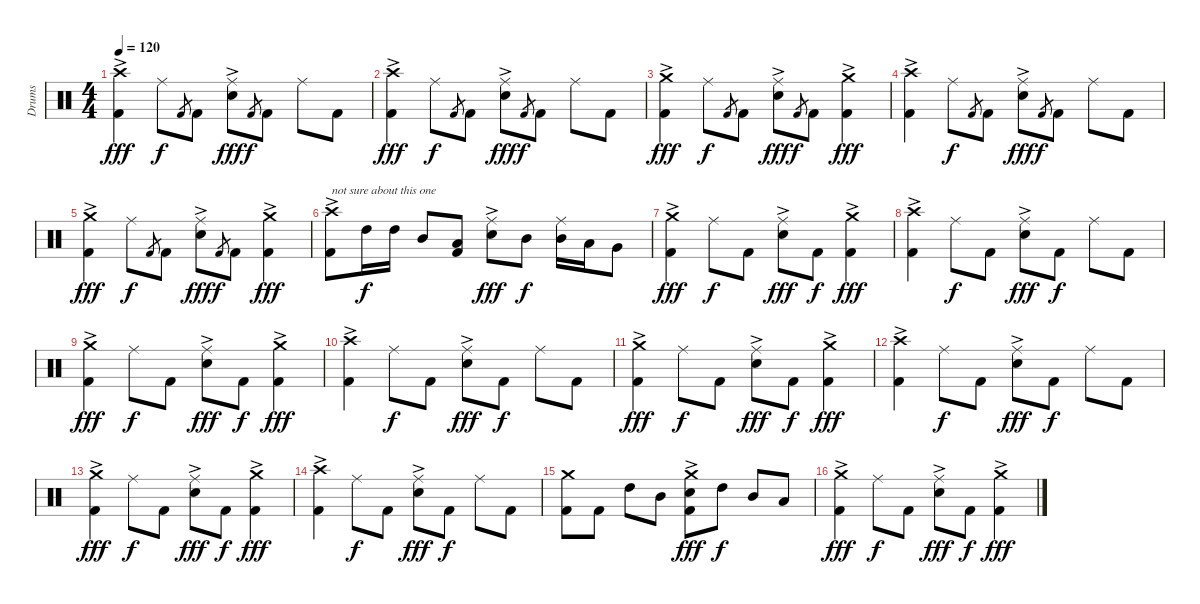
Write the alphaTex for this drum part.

\track ("Drums" "Drums") {instrument percussion}
\staff {score}
\articulation defaults
\ts (4 4)
\tempo 120
\clef neutral
\ks c
("Crash high (hit)"{ac} "Kick (hit) 2").4{dy fff} "Ride (middle)".8{dy f} "Kick (hit) 2".8{gr} "Kick (hit) 2".8 ("Ride (middle)" "Electric Snare (hit)"{ac}).8{dy fff} "Kick (hit) 2".8{gr dy f} "Kick (hit) 2".8 "Ride (middle)".8 "Kick (hit) 2".8 |
("Crash high (hit)"{ac} "Kick (hit) 2").4{dy fff} "Ride (middle)".8{dy f} "Kick (hit) 2".8{gr} "Kick (hit) 2".8 ("Ride (middle)" "Electric Snare (hit)"{ac}).8{dy fff} "Kick (hit) 2".8{gr dy f} "Kick (hit) 2".8 "Ride (middle)".8 "Kick (hit) 2".8 |
("Crash medium (hit)"{ac} "Kick (hit) 2").4{dy fff} "Ride (middle)".8{dy f} "Kick (hit) 2".8{gr} "Kick (hit) 2".8 ("Ride (middle)" "Electric Snare (hit)"{ac}).8{dy fff} "Kick (hit) 2".8{gr dy f} "Kick (hit) 2".8 ("Crash medium (hit)"{ac} "Kick (hit) 2").4{dy fff} |
("Crash high (hit)"{ac} "Kick (hit) 2").4 "Ride (middle)".8{dy f} "Kick (hit) 2".8{gr} "Kick (hit) 2".8 ("Ride (middle)" "Electric Snare (hit)"{ac}).8{dy fff} "Kick (hit) 2".8{gr dy f} "Kick (hit) 2".8 "Ride (middle)".8 "Kick (hit) 2".8 |
("Crash medium (hit)"{ac} "Kick (hit) 2").4{dy fff} "Ride (middle)".8{dy f} "Kick (hit) 2".8{gr} "Kick (hit) 2".8 ("Ride (middle)" "Electric Snare (hit)"{ac}).8{dy fff} "Kick (hit) 2".8{gr dy f} "Kick (hit) 2".8 ("Crash medium (hit)"{ac} "Kick (hit) 2").4{dy fff} |
("Crash high (hit)"{ac} "Kick (hit) 2").8{txt "not sure about this one"} "High Tom (hit)".16{dy f} "High Tom (hit)".16 "Mid Tom (hit)".8 ("Low Tom (hit)" "Kick (hit) 2").8 ("Ride (middle)" "Electric Snare (hit)"{ac}).8{dy fff} "Mid Tom (hit)".8{dy f} ("Ride (middle)" "Mid Tom (hit)").16 "Low Tom (hit)".16 "Very Low Tom (hit)".8 |
("Crash medium (hit)"{ac} "Kick (hit) 2").4{dy fff} "Ride (middle)".8{dy f} "Kick (hit) 2".8 ("Ride (middle)" "Electric Snare (hit)"{ac}).8{dy fff} "Kick (hit) 2".8{dy f} ("Crash medium (hit)"{ac} "Kick (hit) 2").4{dy fff} |
("Crash high (hit)"{ac} "Kick (hit) 2").4 "Ride (middle)".8{dy f} "Kick (hit) 2".8 ("Ride (middle)" "Electric Snare (hit)"{ac}).8{dy fff} "Kick (hit) 2".8{dy f} "Ride (middle)".8 "Kick (hit) 2".8 |
("Crash medium (hit)"{ac} "Kick (hit) 2").4{dy fff} "Ride (middle)".8{dy f} "Kick (hit) 2".8 ("Ride (middle)" "Electric Snare (hit)"{ac}).8{dy fff} "Kick (hit) 2".8{dy f} ("Crash medium (hit)"{ac} "Kick (hit) 2").4{dy fff} |
("Crash high (hit)"{ac} "Kick (hit) 2").4 "Ride (middle)".8{dy f} "Kick (hit) 2".8 ("Ride (middle)" "Electric Snare (hit)"{ac}).8{dy fff} "Kick (hit) 2".8{dy f} "Ride (middle)".8 "Kick (hit) 2".8 |
("Crash medium (hit)"{ac} "Kick (hit) 2").4{dy fff} "Ride (middle)".8{dy f} "Kick (hit) 2".8 ("Ride (middle)" "Electric Snare (hit)"{ac}).8{dy fff} "Kick (hit) 2".8{dy f} ("Crash medium (hit)"{ac} "Kick (hit) 2").4{dy fff} |
("Crash high (hit)"{ac} "Kick (hit) 2").4 "Ride (middle)".8{dy f} "Kick (hit) 2".8 ("Ride (middle)" "Electric Snare (hit)"{ac}).8{dy fff} "Kick (hit) 2".8{dy f} "Ride (middle)".8 "Kick (hit) 2".8 |
("Crash medium (hit)"{ac} "Kick (hit) 2").4{dy fff} "Ride (middle)".8{dy f} "Kick (hit) 2".8 ("Ride (middle)" "Electric Snare (hit)"{ac}).8{dy fff} "Kick (hit) 2".8{dy f} ("Crash medium (hit)"{ac} "Kick (hit) 2").4{dy fff} |
("Crash high (hit)"{ac} "Kick (hit) 2").4 "Ride (middle)".8{dy f} "Kick (hit) 2".8 ("Ride (middle)" "Electric Snare (hit)"{ac}).8{dy fff} "Kick (hit) 2".8{dy f} "Ride (middle)".8 "Kick (hit) 2".8 |
("Crash medium (hit)" "Kick (hit) 2").8 "Kick (hit) 2".8 "High Tom (hit)".8 "Mid Tom (hit)".8 ("Crash medium (hit)" "Electric Snare (hit)"{ac} "Kick (hit) 2").8{dy fff} "High Tom (hit)".8{dy f} "Mid Tom (hit)".8 "Low Tom (hit)".8 |
("Crash medium (hit)"{ac} "Kick (hit) 2").4{dy fff} "Ride (middle)".8{dy f} "Kick (hit) 2".8 ("Ride (middle)" "Electric Snare (hit)"{ac}).8{dy fff} "Kick (hit) 2".8{dy f} ("Crash medium (hit)"{ac} "Kick (hit) 2").4{dy fff}
